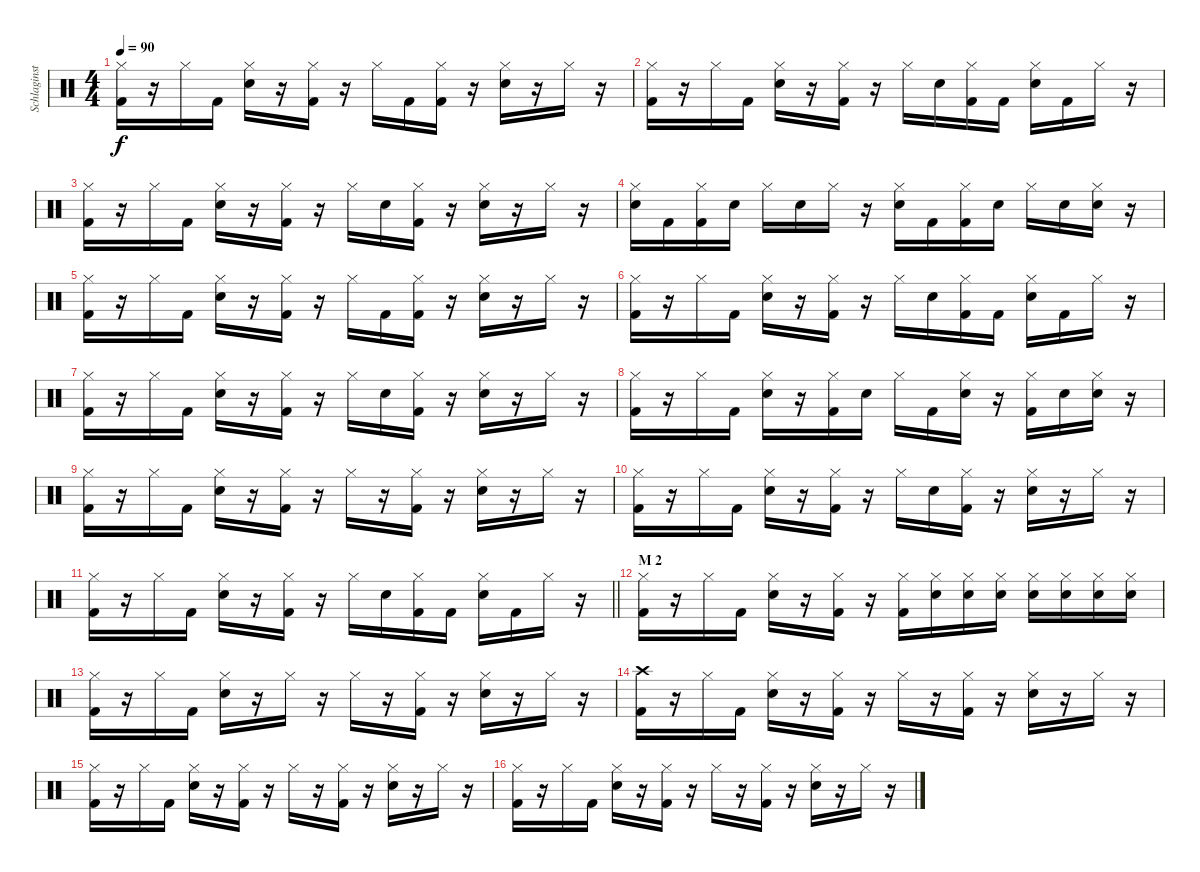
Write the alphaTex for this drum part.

\track ("Schlaginstrumente - Auswahl" "Schlaginst") {instrument percussion}
\staff {score}
\articulation defaults
\ts (4 4)
\tempo 90
\clef neutral
\ks c
("Hi-Hat (closed)" "Kick (hit) 2").16{dy f} r.16 "Hi-Hat (closed)".16 "Kick (hit) 2".16 ("Hi-Hat (closed)" "Snare (hit) 2").16 r.16 ("Hi-Hat (closed)" "Kick (hit) 2").16 r.16 "Hi-Hat (closed)".16 "Kick (hit) 2".16 ("Hi-Hat (closed)" "Kick (hit) 2").16 r.16 ("Hi-Hat (closed)" "Snare (hit) 2").16 r.16 "Hi-Hat (closed)".16 r.16 |
("Hi-Hat (closed)" "Kick (hit) 2").16 r.16 "Hi-Hat (closed)".16 "Kick (hit) 2".16 ("Hi-Hat (closed)" "Snare (hit) 2").16 r.16 ("Hi-Hat (closed)" "Kick (hit) 2").16 r.16 "Hi-Hat (closed)".16 "Snare (hit) 2".16 ("Hi-Hat (closed)" "Kick (hit) 2").16 "Kick (hit) 2".16 ("Hi-Hat (closed)" "Snare (hit) 2").16 "Kick (hit) 2".16 "Hi-Hat (closed)".16 r.16 |
("Hi-Hat (closed)" "Kick (hit) 2").16 r.16 "Hi-Hat (closed)".16 "Kick (hit) 2".16 ("Hi-Hat (closed)" "Snare (hit) 2").16 r.16 ("Hi-Hat (closed)" "Kick (hit) 2").16 r.16 "Hi-Hat (closed)".16 "Snare (hit) 2".16 ("Hi-Hat (closed)" "Kick (hit) 2").16 r.16 ("Hi-Hat (closed)" "Snare (hit) 2").16 r.16 "Hi-Hat (closed)".16 r.16 |
("Hi-Hat (closed)" "Snare (hit) 2").16 "Kick (hit) 2".16 ("Hi-Hat (closed)" "Kick (hit) 2").16 "Snare (hit) 2".16 "Hi-Hat (closed)".16 "Snare (hit) 2".16 "Hi-Hat (closed)".16 r.16 ("Hi-Hat (closed)" "Snare (hit) 2").16 "Kick (hit) 2".16 ("Hi-Hat (closed)" "Kick (hit) 2").16 "Snare (hit) 2".16 "Hi-Hat (closed)".16 "Snare (hit) 2".16 ("Hi-Hat (closed)" "Snare (hit) 2").16 r.16 |
("Hi-Hat (closed)" "Kick (hit) 2").16 r.16 "Hi-Hat (closed)".16 "Kick (hit) 2".16 ("Hi-Hat (closed)" "Snare (hit) 2").16 r.16 ("Hi-Hat (closed)" "Kick (hit) 2").16 r.16 "Hi-Hat (closed)".16 "Kick (hit) 2".16 ("Hi-Hat (closed)" "Kick (hit) 2").16 r.16 ("Hi-Hat (closed)" "Snare (hit) 2").16 r.16 "Hi-Hat (closed)".16 r.16 |
("Hi-Hat (closed)" "Kick (hit) 2").16 r.16 "Hi-Hat (closed)".16 "Kick (hit) 2".16 ("Hi-Hat (closed)" "Snare (hit) 2").16 r.16 ("Hi-Hat (closed)" "Kick (hit) 2").16 r.16 "Hi-Hat (closed)".16 "Snare (hit) 2".16 ("Hi-Hat (closed)" "Kick (hit) 2").16 "Kick (hit) 2".16 ("Hi-Hat (closed)" "Snare (hit) 2").16 "Kick (hit) 2".16 "Hi-Hat (closed)".16 r.16 |
("Hi-Hat (closed)" "Kick (hit) 2").16 r.16 "Hi-Hat (closed)".16 "Kick (hit) 2".16 ("Hi-Hat (closed)" "Snare (hit) 2").16 r.16 ("Hi-Hat (closed)" "Kick (hit) 2").16 r.16 "Hi-Hat (closed)".16 "Snare (hit) 2".16 ("Hi-Hat (closed)" "Kick (hit) 2").16 r.16 ("Hi-Hat (closed)" "Snare (hit) 2").16 r.16 "Hi-Hat (closed)".16 r.16 |
("Hi-Hat (closed)" "Kick (hit) 2").16 r.16 "Hi-Hat (closed)".16 "Kick (hit) 2".16 ("Hi-Hat (closed)" "Snare (hit) 2").16 r.16 ("Hi-Hat (closed)" "Kick (hit) 2").16 "Snare (hit) 2".16 "Hi-Hat (closed)".16 "Kick (hit) 2".16 ("Hi-Hat (closed)" "Snare (hit) 2").16 r.16 ("Hi-Hat (closed)" "Kick (hit) 2").16 "Snare (hit) 2".16 ("Hi-Hat (closed)" "Snare (hit) 2").16 r.16 |
("Hi-Hat (closed)" "Kick (hit) 2").16 r.16 "Hi-Hat (closed)".16 "Kick (hit) 2".16 ("Hi-Hat (closed)" "Snare (hit) 2").16 r.16 ("Hi-Hat (closed)" "Kick (hit) 2").16 r.16 "Hi-Hat (closed)".16 r.16 ("Hi-Hat (closed)" "Kick (hit) 2").16 r.16 ("Hi-Hat (closed)" "Snare (hit) 2").16 r.16 "Hi-Hat (closed)".16 r.16 |
("Hi-Hat (closed)" "Kick (hit) 2").16 r.16 "Hi-Hat (closed)".16 "Kick (hit) 2".16 ("Hi-Hat (closed)" "Snare (hit) 2").16 r.16 ("Hi-Hat (closed)" "Kick (hit) 2").16 r.16 "Hi-Hat (closed)".16 "Snare (hit) 2".16 ("Hi-Hat (closed)" "Kick (hit) 2").16 r.16 ("Hi-Hat (closed)" "Snare (hit) 2").16 r.16 "Hi-Hat (closed)".16 r.16 |
\barLineRight lightlight
("Hi-Hat (closed)" "Kick (hit) 2").16 r.16 "Hi-Hat (closed)".16 "Kick (hit) 2".16 ("Hi-Hat (closed)" "Snare (hit) 2").16 r.16 ("Hi-Hat (closed)" "Kick (hit) 2").16 r.16 "Hi-Hat (closed)".16 "Snare (hit) 2".16 ("Hi-Hat (closed)" "Kick (hit) 2").16 "Kick (hit) 2".16 ("Hi-Hat (closed)" "Snare (hit) 2").16 "Kick (hit) 2".16 "Hi-Hat (closed)".16 r.16 |
\section ("" "M 2")
("Hi-Hat (closed)" "Kick (hit) 2").16 r.16 "Hi-Hat (closed)".16 "Kick (hit) 2".16 ("Hi-Hat (closed)" "Snare (hit) 2").16 r.16 ("Hi-Hat (closed)" "Kick (hit) 2").16 r.16 ("Hi-Hat (closed)" "Kick (hit) 2").16 ("Hi-Hat (closed)" "Snare (hit) 2").16 ("Hi-Hat (closed)" "Snare (hit) 2").16 ("Hi-Hat (closed)" "Snare (hit) 2").16 ("Hi-Hat (closed)" "Snare (hit) 2").16 ("Hi-Hat (closed)" "Snare (hit) 2").16 ("Hi-Hat (closed)" "Snare (hit) 2").16 ("Hi-Hat (closed)" "Snare (hit) 2").16 |
("Hi-Hat (closed)" "Kick (hit) 2").16 r.16 "Hi-Hat (closed)".16 "Kick (hit) 2".16 ("Hi-Hat (closed)" "Snare (hit) 2").16 r.16 "Hi-Hat (closed)".16 r.16 "Hi-Hat (closed)".16 r.16 ("Hi-Hat (closed)" "Kick (hit) 2").16 r.16 ("Hi-Hat (closed)" "Snare (hit) 2").16 r.16 "Hi-Hat (closed)".16 r.16 |
("Crash high (hit)" "Kick (hit) 2").16 r.16 "Hi-Hat (closed)".16 "Kick (hit) 2".16 ("Hi-Hat (closed)" "Snare (hit) 2").16 r.16 ("Hi-Hat (closed)" "Kick (hit) 2").16 r.16 "Hi-Hat (closed)".16 r.16 ("Hi-Hat (closed)" "Kick (hit) 2").16 r.16 ("Hi-Hat (closed)" "Snare (hit) 2").16 r.16 "Hi-Hat (closed)".16 r.16 |
("Hi-Hat (closed)" "Kick (hit) 2").16 r.16 "Hi-Hat (closed)".16 "Kick (hit) 2".16 ("Hi-Hat (closed)" "Snare (hit) 2").16 r.16 ("Hi-Hat (closed)" "Kick (hit) 2").16 r.16 "Hi-Hat (closed)".16 r.16 ("Hi-Hat (closed)" "Kick (hit) 2").16 r.16 ("Hi-Hat (closed)" "Snare (hit) 2").16 r.16 "Hi-Hat (closed)".16 r.16 |
("Hi-Hat (closed)" "Kick (hit) 2").16 r.16 "Hi-Hat (closed)".16 "Kick (hit) 2".16 ("Hi-Hat (closed)" "Snare (hit) 2").16 r.16 ("Hi-Hat (closed)" "Kick (hit) 2").16 r.16 "Hi-Hat (closed)".16 r.16 ("Hi-Hat (closed)" "Kick (hit) 2").16 r.16 ("Hi-Hat (closed)" "Snare (hit) 2").16 r.16 "Hi-Hat (closed)".16 r.16
